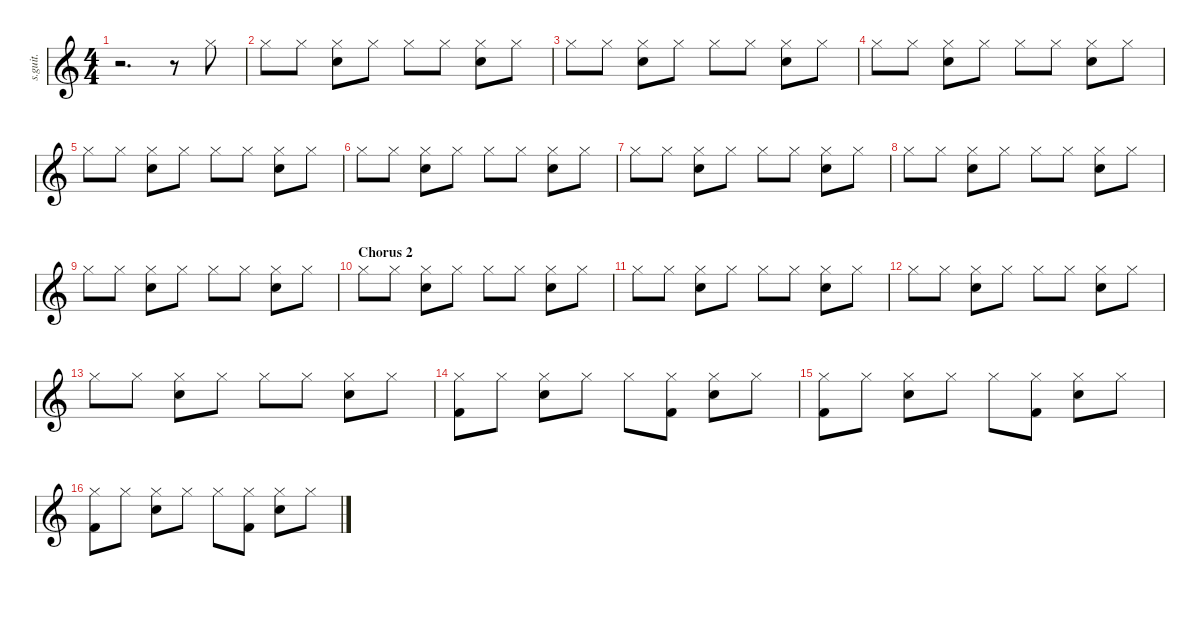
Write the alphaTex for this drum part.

\defaultSystemsLayout 4
\hideDynamics
\bracketExtendMode nobrackets
\track ("Drums (Russel Hobbs)" "s.guit.") {instrument percussion}
\staff {score}
\articulation defaults
\ts (4 4)
\tempo (139 hide)
\clef g2
\ks c
r.2{d dy f} r.8 "Hi-Hat (closed)".8{lyrics (0 "") lyrics (1 "") lyrics (2 "") lyrics (3 "") lyrics (4 "")} |
"Hi-Hat (closed)".8{lyrics (0 "") lyrics (1 "") lyrics (2 "") lyrics (3 "") lyrics (4 "") dy fff} "Hi-Hat (closed)".8{lyrics (0 "") lyrics (1 "") lyrics (2 "") lyrics (3 "") lyrics (4 "") dy f} ("Hi-Hat (closed)" "Snare (hit) 2").8{lyrics (0 "") lyrics (1 "") lyrics (2 "") lyrics (3 "") lyrics (4 "") dy ff} "Hi-Hat (closed)".8{lyrics (0 "") lyrics (1 "") lyrics (2 "") lyrics (3 "") lyrics (4 "") dy f} "Hi-Hat (closed)".8{lyrics (0 "") lyrics (1 "") lyrics (2 "") lyrics (3 "") lyrics (4 "")} "Hi-Hat (closed)".8{lyrics (0 "") lyrics (1 "") lyrics (2 "") lyrics (3 "") lyrics (4 "") dy fff} ("Hi-Hat (closed)" "Snare (hit) 2").8{lyrics (0 "") lyrics (1 "") lyrics (2 "") lyrics (3 "") lyrics (4 "") dy ff} "Hi-Hat (closed)".8{lyrics (0 "") lyrics (1 "") lyrics (2 "") lyrics (3 "") lyrics (4 "") dy f} |
"Hi-Hat (closed)".8{lyrics (0 "") lyrics (1 "") lyrics (2 "") lyrics (3 "") lyrics (4 "") dy fff} "Hi-Hat (closed)".8{lyrics (0 "") lyrics (1 "") lyrics (2 "") lyrics (3 "") lyrics (4 "") dy f} ("Hi-Hat (closed)" "Snare (hit) 2").8{lyrics (0 "") lyrics (1 "") lyrics (2 "") lyrics (3 "") lyrics (4 "") dy ff} "Hi-Hat (closed)".8{lyrics (0 "") lyrics (1 "") lyrics (2 "") lyrics (3 "") lyrics (4 "") dy f} "Hi-Hat (closed)".8{lyrics (0 "") lyrics (1 "") lyrics (2 "") lyrics (3 "") lyrics (4 "")} "Hi-Hat (closed)".8{lyrics (0 "") lyrics (1 "") lyrics (2 "") lyrics (3 "") lyrics (4 "") dy fff} ("Hi-Hat (closed)" "Snare (hit) 2").8{lyrics (0 "") lyrics (1 "") lyrics (2 "") lyrics (3 "") lyrics (4 "") dy ff} "Hi-Hat (closed)".8{lyrics (0 "") lyrics (1 "") lyrics (2 "") lyrics (3 "") lyrics (4 "") dy f} |
"Hi-Hat (closed)".8{lyrics (0 "") lyrics (1 "") lyrics (2 "") lyrics (3 "") lyrics (4 "") dy fff} "Hi-Hat (closed)".8{lyrics (0 "") lyrics (1 "") lyrics (2 "") lyrics (3 "") lyrics (4 "") dy f} ("Hi-Hat (closed)" "Snare (hit) 2").8{lyrics (0 "") lyrics (1 "") lyrics (2 "") lyrics (3 "") lyrics (4 "") dy ff} "Hi-Hat (closed)".8{lyrics (0 "") lyrics (1 "") lyrics (2 "") lyrics (3 "") lyrics (4 "") dy f} "Hi-Hat (closed)".8{lyrics (0 "") lyrics (1 "") lyrics (2 "") lyrics (3 "") lyrics (4 "")} "Hi-Hat (closed)".8{lyrics (0 "") lyrics (1 "") lyrics (2 "") lyrics (3 "") lyrics (4 "") dy fff} ("Hi-Hat (closed)" "Snare (hit) 2").8{lyrics (0 "") lyrics (1 "") lyrics (2 "") lyrics (3 "") lyrics (4 "") dy ff} "Hi-Hat (closed)".8{lyrics (0 "") lyrics (1 "") lyrics (2 "") lyrics (3 "") lyrics (4 "") dy f} |
"Hi-Hat (closed)".8{lyrics (0 "") lyrics (1 "") lyrics (2 "") lyrics (3 "") lyrics (4 "") dy fff} "Hi-Hat (closed)".8{lyrics (0 "") lyrics (1 "") lyrics (2 "") lyrics (3 "") lyrics (4 "") dy f} ("Hi-Hat (closed)" "Snare (hit) 2").8{lyrics (0 "") lyrics (1 "") lyrics (2 "") lyrics (3 "") lyrics (4 "") dy ff} "Hi-Hat (closed)".8{lyrics (0 "") lyrics (1 "") lyrics (2 "") lyrics (3 "") lyrics (4 "") dy f} "Hi-Hat (closed)".8{lyrics (0 "") lyrics (1 "") lyrics (2 "") lyrics (3 "") lyrics (4 "")} "Hi-Hat (closed)".8{lyrics (0 "") lyrics (1 "") lyrics (2 "") lyrics (3 "") lyrics (4 "") dy fff} ("Hi-Hat (closed)" "Snare (hit) 2").8{lyrics (0 "") lyrics (1 "") lyrics (2 "") lyrics (3 "") lyrics (4 "") dy ff} "Hi-Hat (closed)".8{lyrics (0 "") lyrics (1 "") lyrics (2 "") lyrics (3 "") lyrics (4 "") dy f} |
"Hi-Hat (closed)".8{lyrics (0 "") lyrics (1 "") lyrics (2 "") lyrics (3 "") lyrics (4 "") dy fff} "Hi-Hat (closed)".8{lyrics (0 "") lyrics (1 "") lyrics (2 "") lyrics (3 "") lyrics (4 "") dy f} ("Hi-Hat (closed)" "Snare (hit) 2").8{lyrics (0 "") lyrics (1 "") lyrics (2 "") lyrics (3 "") lyrics (4 "") dy ff} "Hi-Hat (closed)".8{lyrics (0 "") lyrics (1 "") lyrics (2 "") lyrics (3 "") lyrics (4 "") dy f} "Hi-Hat (closed)".8{lyrics (0 "") lyrics (1 "") lyrics (2 "") lyrics (3 "") lyrics (4 "")} "Hi-Hat (closed)".8{lyrics (0 "") lyrics (1 "") lyrics (2 "") lyrics (3 "") lyrics (4 "") dy fff} ("Hi-Hat (closed)" "Snare (hit) 2").8{lyrics (0 "") lyrics (1 "") lyrics (2 "") lyrics (3 "") lyrics (4 "") dy ff} "Hi-Hat (closed)".8{lyrics (0 "") lyrics (1 "") lyrics (2 "") lyrics (3 "") lyrics (4 "") dy f} |
"Hi-Hat (closed)".8{lyrics (0 "") lyrics (1 "") lyrics (2 "") lyrics (3 "") lyrics (4 "") dy fff} "Hi-Hat (closed)".8{lyrics (0 "") lyrics (1 "") lyrics (2 "") lyrics (3 "") lyrics (4 "") dy f} ("Hi-Hat (closed)" "Snare (hit) 2").8{lyrics (0 "") lyrics (1 "") lyrics (2 "") lyrics (3 "") lyrics (4 "") dy ff} "Hi-Hat (closed)".8{lyrics (0 "") lyrics (1 "") lyrics (2 "") lyrics (3 "") lyrics (4 "") dy f} "Hi-Hat (closed)".8{lyrics (0 "") lyrics (1 "") lyrics (2 "") lyrics (3 "") lyrics (4 "")} "Hi-Hat (closed)".8{lyrics (0 "") lyrics (1 "") lyrics (2 "") lyrics (3 "") lyrics (4 "") dy fff} ("Hi-Hat (closed)" "Snare (hit) 2").8{lyrics (0 "") lyrics (1 "") lyrics (2 "") lyrics (3 "") lyrics (4 "") dy ff} "Hi-Hat (closed)".8{lyrics (0 "") lyrics (1 "") lyrics (2 "") lyrics (3 "") lyrics (4 "") dy f} |
"Hi-Hat (closed)".8{lyrics (0 "") lyrics (1 "") lyrics (2 "") lyrics (3 "") lyrics (4 "") dy fff} "Hi-Hat (closed)".8{lyrics (0 "") lyrics (1 "") lyrics (2 "") lyrics (3 "") lyrics (4 "") dy f} ("Hi-Hat (closed)" "Snare (hit) 2").8{lyrics (0 "") lyrics (1 "") lyrics (2 "") lyrics (3 "") lyrics (4 "") dy ff} "Hi-Hat (closed)".8{lyrics (0 "") lyrics (1 "") lyrics (2 "") lyrics (3 "") lyrics (4 "") dy f} "Hi-Hat (closed)".8{lyrics (0 "") lyrics (1 "") lyrics (2 "") lyrics (3 "") lyrics (4 "")} "Hi-Hat (closed)".8{lyrics (0 "") lyrics (1 "") lyrics (2 "") lyrics (3 "") lyrics (4 "") dy fff} ("Hi-Hat (closed)" "Snare (hit) 2").8{lyrics (0 "") lyrics (1 "") lyrics (2 "") lyrics (3 "") lyrics (4 "") dy ff} "Hi-Hat (closed)".8{lyrics (0 "") lyrics (1 "") lyrics (2 "") lyrics (3 "") lyrics (4 "") dy f} |
"Hi-Hat (closed)".8{lyrics (0 "") lyrics (1 "") lyrics (2 "") lyrics (3 "") lyrics (4 "") dy fff} "Hi-Hat (closed)".8{lyrics (0 "") lyrics (1 "") lyrics (2 "") lyrics (3 "") lyrics (4 "") dy f} ("Hi-Hat (closed)" "Snare (hit) 2").8{lyrics (0 "") lyrics (1 "") lyrics (2 "") lyrics (3 "") lyrics (4 "") dy ff} "Hi-Hat (closed)".8{lyrics (0 "") lyrics (1 "") lyrics (2 "") lyrics (3 "") lyrics (4 "") dy f} "Hi-Hat (closed)".8{lyrics (0 "") lyrics (1 "") lyrics (2 "") lyrics (3 "") lyrics (4 "")} "Hi-Hat (closed)".8{lyrics (0 "") lyrics (1 "") lyrics (2 "") lyrics (3 "") lyrics (4 "") dy fff} ("Hi-Hat (closed)" "Snare (hit) 2").8{lyrics (0 "") lyrics (1 "") lyrics (2 "") lyrics (3 "") lyrics (4 "") dy ff} "Hi-Hat (closed)".8{lyrics (0 "") lyrics (1 "") lyrics (2 "") lyrics (3 "") lyrics (4 "") dy f} |
\section ("" "Chorus 2")
"Hi-Hat (closed)".8{lyrics (0 "") lyrics (1 "") lyrics (2 "") lyrics (3 "") lyrics (4 "") dy fff} "Hi-Hat (closed)".8{lyrics (0 "") lyrics (1 "") lyrics (2 "") lyrics (3 "") lyrics (4 "") dy f} ("Hi-Hat (closed)" "Snare (hit) 2").8{lyrics (0 "") lyrics (1 "") lyrics (2 "") lyrics (3 "") lyrics (4 "") dy ff} "Hi-Hat (closed)".8{lyrics (0 "") lyrics (1 "") lyrics (2 "") lyrics (3 "") lyrics (4 "") dy f} "Hi-Hat (closed)".8{lyrics (0 "") lyrics (1 "") lyrics (2 "") lyrics (3 "") lyrics (4 "")} "Hi-Hat (closed)".8{lyrics (0 "") lyrics (1 "") lyrics (2 "") lyrics (3 "") lyrics (4 "") dy fff} ("Hi-Hat (closed)" "Snare (hit) 2").8{lyrics (0 "") lyrics (1 "") lyrics (2 "") lyrics (3 "") lyrics (4 "") dy ff} "Hi-Hat (closed)".8{lyrics (0 "") lyrics (1 "") lyrics (2 "") lyrics (3 "") lyrics (4 "") dy f} |
"Hi-Hat (closed)".8{lyrics (0 "") lyrics (1 "") lyrics (2 "") lyrics (3 "") lyrics (4 "") dy fff} "Hi-Hat (closed)".8{lyrics (0 "") lyrics (1 "") lyrics (2 "") lyrics (3 "") lyrics (4 "") dy f} ("Hi-Hat (closed)" "Snare (hit) 2").8{lyrics (0 "") lyrics (1 "") lyrics (2 "") lyrics (3 "") lyrics (4 "") dy ff} "Hi-Hat (closed)".8{lyrics (0 "") lyrics (1 "") lyrics (2 "") lyrics (3 "") lyrics (4 "") dy f} "Hi-Hat (closed)".8{lyrics (0 "") lyrics (1 "") lyrics (2 "") lyrics (3 "") lyrics (4 "")} "Hi-Hat (closed)".8{lyrics (0 "") lyrics (1 "") lyrics (2 "") lyrics (3 "") lyrics (4 "") dy fff} ("Hi-Hat (closed)" "Snare (hit) 2").8{lyrics (0 "") lyrics (1 "") lyrics (2 "") lyrics (3 "") lyrics (4 "") dy ff} "Hi-Hat (closed)".8{lyrics (0 "") lyrics (1 "") lyrics (2 "") lyrics (3 "") lyrics (4 "") dy f} |
"Hi-Hat (closed)".8{lyrics (0 "") lyrics (1 "") lyrics (2 "") lyrics (3 "") lyrics (4 "") dy fff} "Hi-Hat (closed)".8{lyrics (0 "") lyrics (1 "") lyrics (2 "") lyrics (3 "") lyrics (4 "") dy f} ("Hi-Hat (closed)" "Snare (hit) 2").8{lyrics (0 "") lyrics (1 "") lyrics (2 "") lyrics (3 "") lyrics (4 "") dy ff} "Hi-Hat (closed)".8{lyrics (0 "") lyrics (1 "") lyrics (2 "") lyrics (3 "") lyrics (4 "") dy f} "Hi-Hat (closed)".8{lyrics (0 "") lyrics (1 "") lyrics (2 "") lyrics (3 "") lyrics (4 "")} "Hi-Hat (closed)".8{lyrics (0 "") lyrics (1 "") lyrics (2 "") lyrics (3 "") lyrics (4 "") dy fff} ("Hi-Hat (closed)" "Snare (hit) 2").8{lyrics (0 "") lyrics (1 "") lyrics (2 "") lyrics (3 "") lyrics (4 "") dy ff} "Hi-Hat (closed)".8{lyrics (0 "") lyrics (1 "") lyrics (2 "") lyrics (3 "") lyrics (4 "") dy f} |
"Hi-Hat (closed)".8{lyrics (0 "") lyrics (1 "") lyrics (2 "") lyrics (3 "") lyrics (4 "") dy fff} "Hi-Hat (closed)".8{lyrics (0 "") lyrics (1 "") lyrics (2 "") lyrics (3 "") lyrics (4 "") dy f} ("Hi-Hat (closed)" "Snare (hit) 2").8{lyrics (0 "") lyrics (1 "") lyrics (2 "") lyrics (3 "") lyrics (4 "") dy ff} "Hi-Hat (closed)".8{lyrics (0 "") lyrics (1 "") lyrics (2 "") lyrics (3 "") lyrics (4 "") dy f} "Hi-Hat (closed)".8{lyrics (0 "") lyrics (1 "") lyrics (2 "") lyrics (3 "") lyrics (4 "")} "Hi-Hat (closed)".8{lyrics (0 "") lyrics (1 "") lyrics (2 "") lyrics (3 "") lyrics (4 "") dy fff} ("Hi-Hat (closed)" "Snare (hit) 2").8{lyrics (0 "") lyrics (1 "") lyrics (2 "") lyrics (3 "") lyrics (4 "") dy ff} "Hi-Hat (closed)".8{lyrics (0 "") lyrics (1 "") lyrics (2 "") lyrics (3 "") lyrics (4 "") dy f} |
("Hi-Hat (closed)" "Kick (hit) 2").8{lyrics (0 "") lyrics (1 "") lyrics (2 "") lyrics (3 "") lyrics (4 "")} "Hi-Hat (closed)".8{lyrics (0 "") lyrics (1 "") lyrics (2 "") lyrics (3 "") lyrics (4 "")} ("Hi-Hat (closed)" "Snare (hit) 2").8{lyrics (0 "") lyrics (1 "") lyrics (2 "") lyrics (3 "") lyrics (4 "")} "Hi-Hat (closed)".8{lyrics (0 "") lyrics (1 "") lyrics (2 "") lyrics (3 "") lyrics (4 "")} "Hi-Hat (closed)".8{lyrics (0 "") lyrics (1 "") lyrics (2 "") lyrics (3 "") lyrics (4 "")} ("Hi-Hat (closed)" "Kick (hit) 2").8{lyrics (0 "") lyrics (1 "") lyrics (2 "") lyrics (3 "") lyrics (4 "")} ("Hi-Hat (closed)" "Snare (hit) 2").8{lyrics (0 "") lyrics (1 "") lyrics (2 "") lyrics (3 "") lyrics (4 "")} "Hi-Hat (closed)".8{lyrics (0 "") lyrics (1 "") lyrics (2 "") lyrics (3 "") lyrics (4 "")} |
("Hi-Hat (closed)" "Kick (hit) 2").8{lyrics (0 "") lyrics (1 "") lyrics (2 "") lyrics (3 "") lyrics (4 "")} "Hi-Hat (closed)".8{lyrics (0 "") lyrics (1 "") lyrics (2 "") lyrics (3 "") lyrics (4 "")} ("Hi-Hat (closed)" "Snare (hit) 2").8{lyrics (0 "") lyrics (1 "") lyrics (2 "") lyrics (3 "") lyrics (4 "")} "Hi-Hat (closed)".8{lyrics (0 "") lyrics (1 "") lyrics (2 "") lyrics (3 "") lyrics (4 "")} "Hi-Hat (closed)".8{lyrics (0 "") lyrics (1 "") lyrics (2 "") lyrics (3 "") lyrics (4 "")} ("Hi-Hat (closed)" "Kick (hit) 2").8{lyrics (0 "") lyrics (1 "") lyrics (2 "") lyrics (3 "") lyrics (4 "")} ("Hi-Hat (closed)" "Snare (hit) 2").8{lyrics (0 "") lyrics (1 "") lyrics (2 "") lyrics (3 "") lyrics (4 "")} "Hi-Hat (closed)".8{lyrics (0 "") lyrics (1 "") lyrics (2 "") lyrics (3 "") lyrics (4 "")} |
("Hi-Hat (closed)" "Kick (hit) 2").8{lyrics (0 "") lyrics (1 "") lyrics (2 "") lyrics (3 "") lyrics (4 "")} "Hi-Hat (closed)".8{lyrics (0 "") lyrics (1 "") lyrics (2 "") lyrics (3 "") lyrics (4 "")} ("Hi-Hat (closed)" "Snare (hit) 2").8{lyrics (0 "") lyrics (1 "") lyrics (2 "") lyrics (3 "") lyrics (4 "")} "Hi-Hat (closed)".8{lyrics (0 "") lyrics (1 "") lyrics (2 "") lyrics (3 "") lyrics (4 "")} "Hi-Hat (closed)".8{lyrics (0 "") lyrics (1 "") lyrics (2 "") lyrics (3 "") lyrics (4 "")} ("Hi-Hat (closed)" "Kick (hit) 2").8{lyrics (0 "") lyrics (1 "") lyrics (2 "") lyrics (3 "") lyrics (4 "")} ("Hi-Hat (closed)" "Snare (hit) 2").8{lyrics (0 "") lyrics (1 "") lyrics (2 "") lyrics (3 "") lyrics (4 "")} "Hi-Hat (closed)".8{lyrics (0 "") lyrics (1 "") lyrics (2 "") lyrics (3 "") lyrics (4 "")}
